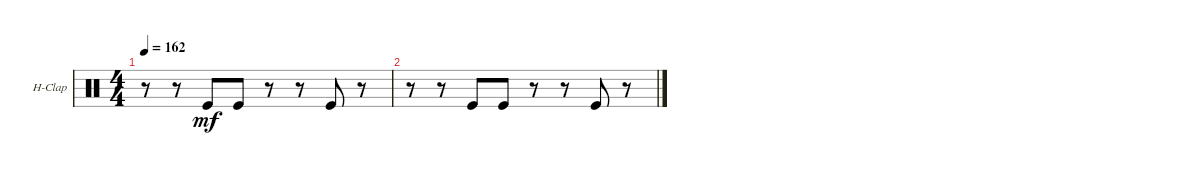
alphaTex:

\defaultSystemsLayout 4
\bracketExtendMode groupsimilarinstruments
\firstSystemTrackNameOrientation horizontal
\otherSystemsTrackNameOrientation horizontal
\track ("Hand Clap" "H-Clap") {instrument percussion}
\staff {score}
\articulation defaults
\ts (4 4)
\tempo 162
\clef neutral
\ks c
r.8{dy mf} r.8 "Kick (hit)".8 "Kick (hit)".8 r.8 r.8 "Kick (hit)".8 r.8 |
r.8 r.8 "Kick (hit)".8 "Kick (hit)".8 r.8 r.8 "Kick (hit)".8 r.8
